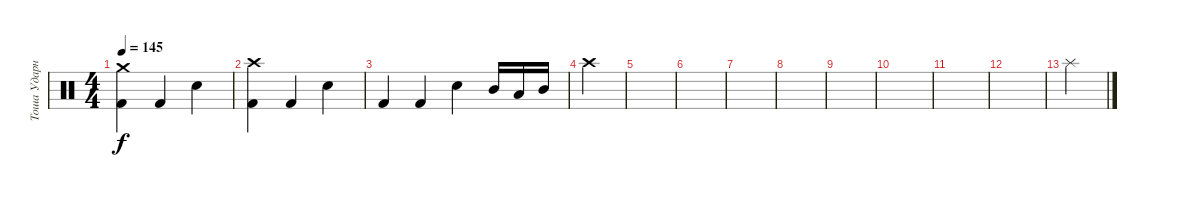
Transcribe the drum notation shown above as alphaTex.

\track ("Тоша Ударные" "Тоша Ударн") {instrument percussion}
\staff {score}
\articulation defaults
\ts (4 4)
\tempo 145
\clef neutral
\ks c
("Kick (hit) 2" "Crash medium (hit)").4{dy f} "Kick (hit) 2".4 "Electric Snare (hit)".4 |
("Kick (hit) 2" "Crash high (hit)").4 "Kick (hit) 2".4 "Electric Snare (hit)".4 |
"Kick (hit) 2".4 "Kick (hit) 2".4 "Electric Snare (hit)".4 "Mid Tom (hit)".16 "Low Tom (hit)".16 "Mid Tom (hit)".16 |
"Crash high (hit)".4 |
|
|
|
|
|
|
|
|
"Splash (hit)".4
